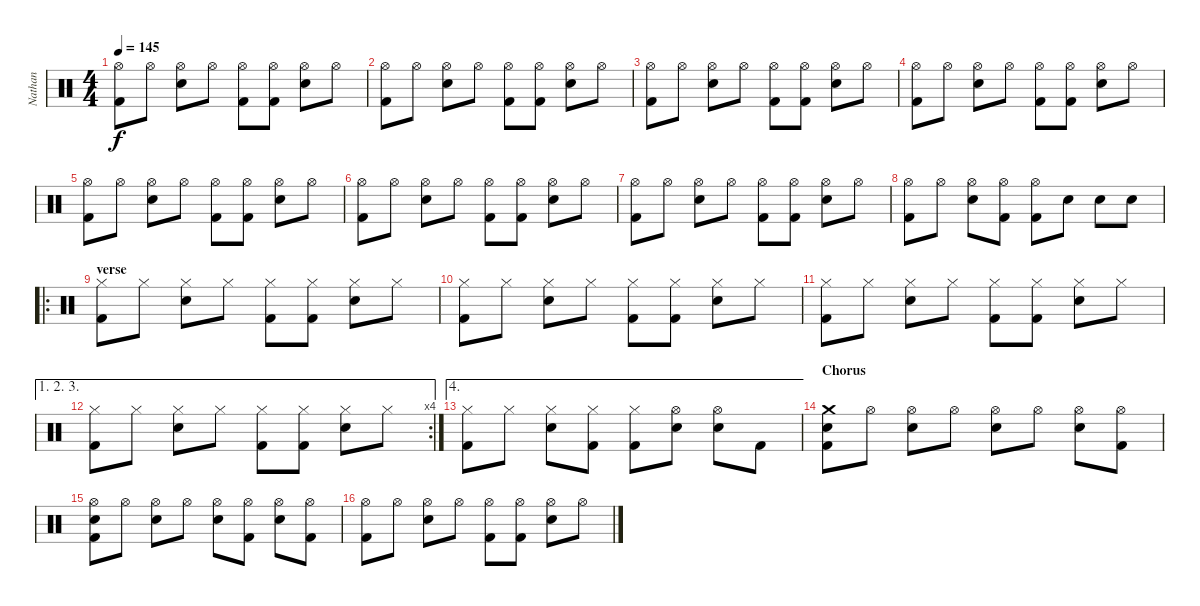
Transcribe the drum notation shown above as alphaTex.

\track ("Nathan" "Nathan") {instrument percussion}
\staff {score}
\articulation defaults
\ts (4 4)
\tempo 145
\clef neutral
\ks c
("Hi-Hat (open)" "Kick (hit) 2").8{dy f} "Hi-Hat (open)".8 ("Hi-Hat (open)" "Electric Snare (hit)").8 "Hi-Hat (open)".8 ("Hi-Hat (open)" "Kick (hit) 2").8 ("Hi-Hat (open)" "Kick (hit) 2").8 ("Hi-Hat (open)" "Electric Snare (hit)").8 "Hi-Hat (open)".8 |
("Hi-Hat (open)" "Kick (hit) 2").8 "Hi-Hat (open)".8 ("Hi-Hat (open)" "Electric Snare (hit)").8 "Hi-Hat (open)".8 ("Hi-Hat (open)" "Kick (hit) 2").8 ("Hi-Hat (open)" "Kick (hit) 2").8 ("Hi-Hat (open)" "Electric Snare (hit)").8 "Hi-Hat (open)".8 |
("Hi-Hat (open)" "Kick (hit) 2").8 "Hi-Hat (open)".8 ("Hi-Hat (open)" "Electric Snare (hit)").8 "Hi-Hat (open)".8 ("Hi-Hat (open)" "Kick (hit) 2").8 ("Hi-Hat (open)" "Kick (hit) 2").8 ("Hi-Hat (open)" "Electric Snare (hit)").8 "Hi-Hat (open)".8 |
("Hi-Hat (open)" "Kick (hit) 2").8 "Hi-Hat (open)".8 ("Hi-Hat (open)" "Electric Snare (hit)").8 "Hi-Hat (open)".8 ("Hi-Hat (open)" "Kick (hit) 2").8 ("Hi-Hat (open)" "Kick (hit) 2").8 ("Hi-Hat (open)" "Electric Snare (hit)").8 "Hi-Hat (open)".8 |
("Hi-Hat (open)" "Kick (hit) 2").8 "Hi-Hat (open)".8 ("Hi-Hat (open)" "Electric Snare (hit)").8 "Hi-Hat (open)".8 ("Hi-Hat (open)" "Kick (hit) 2").8 ("Hi-Hat (open)" "Kick (hit) 2").8 ("Hi-Hat (open)" "Electric Snare (hit)").8 "Hi-Hat (open)".8 |
("Hi-Hat (open)" "Kick (hit) 2").8 "Hi-Hat (open)".8 ("Hi-Hat (open)" "Electric Snare (hit)").8 "Hi-Hat (open)".8 ("Hi-Hat (open)" "Kick (hit) 2").8 ("Hi-Hat (open)" "Kick (hit) 2").8 ("Hi-Hat (open)" "Electric Snare (hit)").8 "Hi-Hat (open)".8 |
("Hi-Hat (open)" "Kick (hit) 2").8 "Hi-Hat (open)".8 ("Hi-Hat (open)" "Electric Snare (hit)").8 "Hi-Hat (open)".8 ("Hi-Hat (open)" "Kick (hit) 2").8 ("Hi-Hat (open)" "Kick (hit) 2").8 ("Hi-Hat (open)" "Electric Snare (hit)").8 "Hi-Hat (open)".8 |
("Hi-Hat (open)" "Kick (hit) 2").8 "Hi-Hat (open)".8 ("Hi-Hat (open)" "Electric Snare (hit)").8 ("Hi-Hat (open)" "Kick (hit) 2").8 ("Hi-Hat (open)" "Kick (hit) 2").8 "Electric Snare (hit)".8 "Electric Snare (hit)".8 "Electric Snare (hit)".8 |
\ro
\section ("" "verse")
("Hi-Hat (closed)" "Kick (hit) 2").8 "Hi-Hat (closed)".8 ("Hi-Hat (closed)" "Electric Snare (hit)").8 "Hi-Hat (closed)".8 ("Hi-Hat (closed)" "Kick (hit) 2").8 ("Hi-Hat (closed)" "Kick (hit) 2").8 ("Hi-Hat (closed)" "Electric Snare (hit)").8 "Hi-Hat (closed)".8 |
("Hi-Hat (closed)" "Kick (hit) 2").8 "Hi-Hat (closed)".8 ("Hi-Hat (closed)" "Electric Snare (hit)").8 "Hi-Hat (closed)".8 ("Hi-Hat (closed)" "Kick (hit) 2").8 ("Hi-Hat (closed)" "Kick (hit) 2").8 ("Hi-Hat (closed)" "Electric Snare (hit)").8 "Hi-Hat (closed)".8 |
("Hi-Hat (closed)" "Kick (hit) 2").8 "Hi-Hat (closed)".8 ("Hi-Hat (closed)" "Electric Snare (hit)").8 "Hi-Hat (closed)".8 ("Hi-Hat (closed)" "Kick (hit) 2").8 ("Hi-Hat (closed)" "Kick (hit) 2").8 ("Hi-Hat (closed)" "Electric Snare (hit)").8 "Hi-Hat (closed)".8 |
\ae (1 2 3)
\rc 4
("Hi-Hat (closed)" "Kick (hit) 2").8 "Hi-Hat (closed)".8 ("Hi-Hat (closed)" "Electric Snare (hit)").8 "Hi-Hat (closed)".8 ("Hi-Hat (closed)" "Kick (hit) 2").8 ("Hi-Hat (closed)" "Kick (hit) 2").8 ("Hi-Hat (closed)" "Electric Snare (hit)").8 "Hi-Hat (closed)".8 |
\ae 4
("Hi-Hat (closed)" "Kick (hit) 2").8 "Hi-Hat (closed)".8 ("Hi-Hat (closed)" "Electric Snare (hit)").8 ("Hi-Hat (closed)" "Kick (hit) 2").8 ("Hi-Hat (closed)" "Kick (hit) 2").8 ("Hi-Hat (open)" "Electric Snare (hit)").8 ("Hi-Hat (open)" "Electric Snare (hit)").8 "Kick (hit) 2".8 |
\section ("" "Chorus")
("Crash medium (hit)" "Electric Snare (hit)" "Kick (hit) 2").8 "Hi-Hat (open)".8 ("Hi-Hat (open)" "Electric Snare (hit)").8 "Hi-Hat (open)".8 ("Hi-Hat (open)" "Electric Snare (hit)").8 "Hi-Hat (open)".8 ("Hi-Hat (open)" "Electric Snare (hit)").8 ("Hi-Hat (open)" "Kick (hit) 2").8 |
("Hi-Hat (open)" "Electric Snare (hit)" "Kick (hit) 2").8 "Hi-Hat (open)".8 ("Hi-Hat (open)" "Electric Snare (hit)").8 "Hi-Hat (open)".8 ("Hi-Hat (open)" "Electric Snare (hit)").8 ("Hi-Hat (open)" "Kick (hit) 2").8 ("Hi-Hat (open)" "Electric Snare (hit)").8 ("Hi-Hat (open)" "Kick (hit) 2").8 |
("Hi-Hat (open)" "Kick (hit) 2").8 "Hi-Hat (open)".8 ("Hi-Hat (open)" "Electric Snare (hit)").8 "Hi-Hat (open)".8 ("Hi-Hat (open)" "Kick (hit) 2").8 ("Hi-Hat (open)" "Kick (hit) 2").8 ("Hi-Hat (open)" "Electric Snare (hit)").8 "Hi-Hat (open)".8
